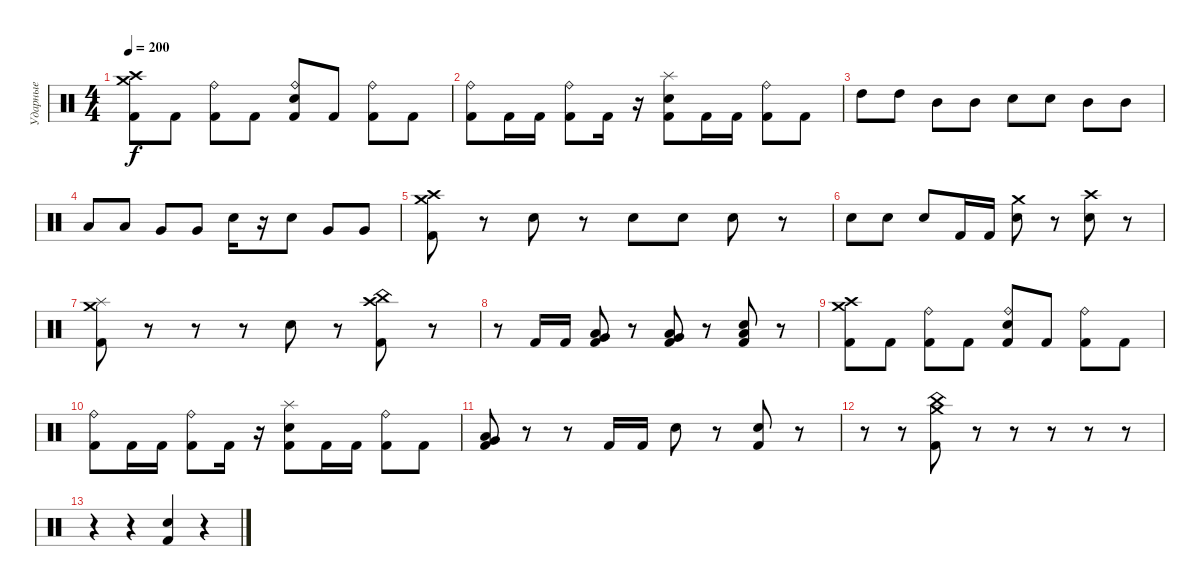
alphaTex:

\track ("Ударные" "Ударные") {instrument percussion}
\staff {score}
\articulation defaults
\ts (4 4)
\tempo 200
\clef neutral
\ks c
("Kick (hit) 2" "Crash high (hit)" "Crash medium (hit)").8{dy f} "Kick (hit) 2".8 ("Kick (hit) 2" "Ride (bell)").8 "Kick (hit) 2".8 ("Kick (hit) 2" "Electric Snare (hit)" "Ride (bell)").8 "Kick (hit) 2".8 ("Kick (hit) 2" "Ride (bell)").8 "Kick (hit) 2".8 |
("Kick (hit) 2" "Ride (bell)").8 "Kick (hit) 2".16 "Kick (hit) 2".16 ("Kick (hit) 2" "Ride (bell)").8 "Kick (hit) 2".16 r.16 ("Kick (hit) 2" "Electric Snare (hit)" "Splash (hit)").8 "Kick (hit) 2".16 "Kick (hit) 2".16 ("Kick (hit) 2" "Ride (bell)").8 "Kick (hit) 2".8 |
"High Tom (hit)".8 "High Tom (hit)".8 "Mid Tom (hit)".8 "Mid Tom (hit)".8 "Electric Snare (hit)".8 "Electric Snare (hit)".8 "Mid Tom (hit)".8 "Mid Tom (hit)".8 |
"Low Tom (hit)".8 "Low Tom (hit)".8 "Very Low Tom (hit)".8 "Very Low Tom (hit)".8 "Electric Snare (hit)".16 r.16 "Electric Snare (hit)".8 "Very Low Tom (hit)".8 "Very Low Tom (hit)".8 |
("Kick (hit) 2" "Crash high (hit)" "Crash medium (hit)").8 r.8 "Electric Snare (hit)".8 r.8 "Electric Snare (hit)".8 "Electric Snare (hit)".8 "Electric Snare (hit)".8 r.8 |
"Electric Snare (hit)".8 "Electric Snare (hit)".8 "Electric Snare (hit)".8 "Kick (hit) 2".16 "Kick (hit) 2".16 ("Electric Snare (hit)" "Crash medium (hit)").8 r.8 ("Electric Snare (hit)" "Crash high (hit)").8 r.8 |
("Kick (hit) 2" "Crash medium (hit)" "Splash (hit)").8 r.8 r.8 r.8 "Electric Snare (hit)".8 r.8 ("Kick (hit) 2" "Crash high (hit)" "China (hit)").8 r.8 |
r.8 "Kick (hit) 2".16 "Kick (hit) 2".16 ("Kick (hit) 2" "Low Floor Tom (hit)" "Very Low Tom (hit)").8 r.8 ("Kick (hit) 2" "Low Floor Tom (hit)" "Very Low Tom (hit)").8 r.8 ("Kick (hit) 2" "Low Floor Tom (hit)" "Electric Snare (hit)").8 r.8 |
("Kick (hit) 2" "Crash high (hit)" "Crash medium (hit)").8 "Kick (hit) 2".8 ("Kick (hit) 2" "Ride (bell)").8 "Kick (hit) 2".8 ("Kick (hit) 2" "Electric Snare (hit)" "Ride (bell)").8 "Kick (hit) 2".8 ("Kick (hit) 2" "Ride (bell)").8 "Kick (hit) 2".8 |
("Kick (hit) 2" "Ride (bell)").8 "Kick (hit) 2".16 "Kick (hit) 2".16 ("Kick (hit) 2" "Ride (bell)").8 "Kick (hit) 2".16 r.16 ("Kick (hit) 2" "Electric Snare (hit)" "Splash (hit)").8 "Kick (hit) 2".16 "Kick (hit) 2".16 ("Kick (hit) 2" "Ride (bell)").8 "Kick (hit) 2".8 |
("Kick (hit) 2" "Low Floor Tom (hit)" "Very Low Tom (hit)").8 r.8 r.8 "Kick (hit) 2".16 "Kick (hit) 2".16 "Electric Snare (hit)".8 r.8 ("Kick (hit) 2" "Electric Snare (hit)").8 r.8 |
r.8 r.8 ("Kick (hit) 2" "Crash medium (hit)" "China (hit)").8 r.8 r.8 r.8 r.8 r.8 |
r.4 r.4 ("Kick (hit) 2" "Electric Snare (hit)").4 r.4
